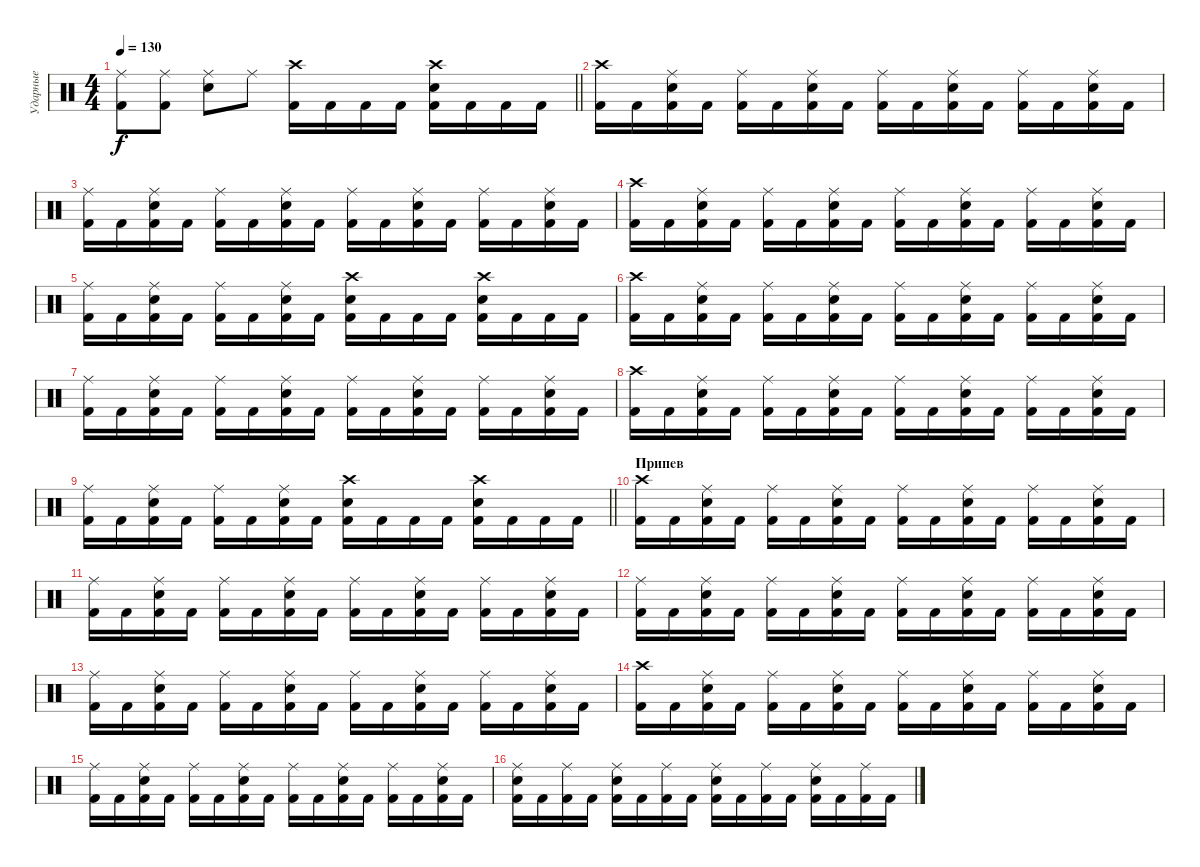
\track ("Ударные" "Ударные") {instrument percussion}
\staff {score}
\articulation defaults
\ts (4 4)
\tempo 130
\clef neutral
\barLineRight lightlight
\ks c
("Ride (middle)" "Kick (hit) 2").8{dy f} ("Ride (middle)" "Kick (hit) 2").8 ("Ride (middle)" "Snare (hit) 2").8 "Ride (middle)".8 ("Crash high (hit)" "Kick (hit) 2").16 "Kick (hit) 2".16 "Kick (hit) 2".16 "Kick (hit) 2".16 ("Crash high (hit)" "Snare (hit) 2" "Kick (hit) 2").16 "Kick (hit) 2".16 "Kick (hit) 2".16 "Kick (hit) 2".16 |
\section ("" "")
("Crash high (hit)" "Kick (hit) 2").16 "Kick (hit) 2".16 ("Ride (middle)" "Snare (hit) 2" "Kick (hit) 2").16 "Kick (hit) 2".16 ("Ride (middle)" "Kick (hit) 2").16 "Kick (hit) 2".16 ("Ride (middle)" "Snare (hit) 2" "Kick (hit) 2").16 "Kick (hit) 2".16 ("Ride (middle)" "Kick (hit) 2").16 "Kick (hit) 2".16 ("Ride (middle)" "Snare (hit) 2" "Kick (hit) 2").16 "Kick (hit) 2".16 ("Ride (middle)" "Kick (hit) 2").16 "Kick (hit) 2".16 ("Ride (middle)" "Snare (hit) 2" "Kick (hit) 2").16 "Kick (hit) 2".16 |
("Ride (middle)" "Kick (hit) 2").16 "Kick (hit) 2".16 ("Ride (middle)" "Snare (hit) 2" "Kick (hit) 2").16 "Kick (hit) 2".16 ("Ride (middle)" "Kick (hit) 2").16 "Kick (hit) 2".16 ("Ride (middle)" "Snare (hit) 2" "Kick (hit) 2").16 "Kick (hit) 2".16 ("Ride (middle)" "Kick (hit) 2").16 "Kick (hit) 2".16 ("Ride (middle)" "Snare (hit) 2" "Kick (hit) 2").16 "Kick (hit) 2".16 ("Ride (middle)" "Kick (hit) 2").16 "Kick (hit) 2".16 ("Ride (middle)" "Snare (hit) 2" "Kick (hit) 2").16 "Kick (hit) 2".16 |
("Crash high (hit)" "Kick (hit) 2").16 "Kick (hit) 2".16 ("Ride (middle)" "Snare (hit) 2" "Kick (hit) 2").16 "Kick (hit) 2".16 ("Ride (middle)" "Kick (hit) 2").16 "Kick (hit) 2".16 ("Ride (middle)" "Snare (hit) 2" "Kick (hit) 2").16 "Kick (hit) 2".16 ("Ride (middle)" "Kick (hit) 2").16 "Kick (hit) 2".16 ("Ride (middle)" "Snare (hit) 2" "Kick (hit) 2").16 "Kick (hit) 2".16 ("Ride (middle)" "Kick (hit) 2").16 "Kick (hit) 2".16 ("Ride (middle)" "Snare (hit) 2" "Kick (hit) 2").16 "Kick (hit) 2".16 |
("Ride (middle)" "Kick (hit) 2").16 "Kick (hit) 2".16 ("Ride (middle)" "Snare (hit) 2" "Kick (hit) 2").16 "Kick (hit) 2".16 ("Ride (middle)" "Kick (hit) 2").16 "Kick (hit) 2".16 ("Ride (middle)" "Snare (hit) 2" "Kick (hit) 2").16 "Kick (hit) 2".16 ("Crash high (hit)" "Snare (hit) 2" "Kick (hit) 2").16 "Kick (hit) 2".16 "Kick (hit) 2".16 "Kick (hit) 2".16 ("Crash high (hit)" "Snare (hit) 2" "Kick (hit) 2").16 "Kick (hit) 2".16 "Kick (hit) 2".16 "Kick (hit) 2".16 |
("Crash high (hit)" "Kick (hit) 2").16 "Kick (hit) 2".16 ("Ride (middle)" "Snare (hit) 2" "Kick (hit) 2").16 "Kick (hit) 2".16 ("Ride (middle)" "Kick (hit) 2").16 "Kick (hit) 2".16 ("Ride (middle)" "Snare (hit) 2" "Kick (hit) 2").16 "Kick (hit) 2".16 ("Ride (middle)" "Kick (hit) 2").16 "Kick (hit) 2".16 ("Ride (middle)" "Snare (hit) 2" "Kick (hit) 2").16 "Kick (hit) 2".16 ("Ride (middle)" "Kick (hit) 2").16 "Kick (hit) 2".16 ("Ride (middle)" "Snare (hit) 2" "Kick (hit) 2").16 "Kick (hit) 2".16 |
("Ride (middle)" "Kick (hit) 2").16 "Kick (hit) 2".16 ("Ride (middle)" "Snare (hit) 2" "Kick (hit) 2").16 "Kick (hit) 2".16 ("Ride (middle)" "Kick (hit) 2").16 "Kick (hit) 2".16 ("Ride (middle)" "Snare (hit) 2" "Kick (hit) 2").16 "Kick (hit) 2".16 ("Ride (middle)" "Kick (hit) 2").16 "Kick (hit) 2".16 ("Ride (middle)" "Snare (hit) 2" "Kick (hit) 2").16 "Kick (hit) 2".16 ("Ride (middle)" "Kick (hit) 2").16 "Kick (hit) 2".16 ("Ride (middle)" "Snare (hit) 2" "Kick (hit) 2").16 "Kick (hit) 2".16 |
("Crash high (hit)" "Kick (hit) 2").16 "Kick (hit) 2".16 ("Ride (middle)" "Snare (hit) 2" "Kick (hit) 2").16 "Kick (hit) 2".16 ("Ride (middle)" "Kick (hit) 2").16 "Kick (hit) 2".16 ("Ride (middle)" "Snare (hit) 2" "Kick (hit) 2").16 "Kick (hit) 2".16 ("Ride (middle)" "Kick (hit) 2").16 "Kick (hit) 2".16 ("Ride (middle)" "Snare (hit) 2" "Kick (hit) 2").16 "Kick (hit) 2".16 ("Ride (middle)" "Kick (hit) 2").16 "Kick (hit) 2".16 ("Ride (middle)" "Snare (hit) 2" "Kick (hit) 2").16 "Kick (hit) 2".16 |
\barLineRight lightlight
("Ride (middle)" "Kick (hit) 2").16 "Kick (hit) 2".16 ("Ride (middle)" "Snare (hit) 2" "Kick (hit) 2").16 "Kick (hit) 2".16 ("Ride (middle)" "Kick (hit) 2").16 "Kick (hit) 2".16 ("Ride (middle)" "Snare (hit) 2" "Kick (hit) 2").16 "Kick (hit) 2".16 ("Crash high (hit)" "Snare (hit) 2" "Kick (hit) 2").16 "Kick (hit) 2".16 "Kick (hit) 2".16 "Kick (hit) 2".16 ("Crash high (hit)" "Snare (hit) 2" "Kick (hit) 2").16 "Kick (hit) 2".16 "Kick (hit) 2".16 "Kick (hit) 2".16 |
\section ("" "Припев")
("Crash high (hit)" "Kick (hit) 2").16 "Kick (hit) 2".16 ("Ride (middle)" "Snare (hit) 2" "Kick (hit) 2").16 "Kick (hit) 2".16 ("Ride (middle)" "Kick (hit) 2").16 "Kick (hit) 2".16 ("Ride (middle)" "Snare (hit) 2" "Kick (hit) 2").16 "Kick (hit) 2".16 ("Ride (middle)" "Kick (hit) 2").16 "Kick (hit) 2".16 ("Ride (middle)" "Snare (hit) 2" "Kick (hit) 2").16 "Kick (hit) 2".16 ("Ride (middle)" "Kick (hit) 2").16 "Kick (hit) 2".16 ("Ride (middle)" "Snare (hit) 2" "Kick (hit) 2").16 "Kick (hit) 2".16 |
("Ride (middle)" "Kick (hit) 2").16 "Kick (hit) 2".16 ("Ride (middle)" "Snare (hit) 2" "Kick (hit) 2").16 "Kick (hit) 2".16 ("Ride (middle)" "Kick (hit) 2").16 "Kick (hit) 2".16 ("Ride (middle)" "Snare (hit) 2" "Kick (hit) 2").16 "Kick (hit) 2".16 ("Ride (middle)" "Kick (hit) 2").16 "Kick (hit) 2".16 ("Ride (middle)" "Snare (hit) 2" "Kick (hit) 2").16 "Kick (hit) 2".16 ("Ride (middle)" "Kick (hit) 2").16 "Kick (hit) 2".16 ("Ride (middle)" "Snare (hit) 2" "Kick (hit) 2").16 "Kick (hit) 2".16 |
("Ride (middle)" "Kick (hit) 2").16 "Kick (hit) 2".16 ("Ride (middle)" "Snare (hit) 2" "Kick (hit) 2").16 "Kick (hit) 2".16 ("Ride (middle)" "Kick (hit) 2").16 "Kick (hit) 2".16 ("Ride (middle)" "Snare (hit) 2" "Kick (hit) 2").16 "Kick (hit) 2".16 ("Ride (middle)" "Kick (hit) 2").16 "Kick (hit) 2".16 ("Ride (middle)" "Snare (hit) 2" "Kick (hit) 2").16 "Kick (hit) 2".16 ("Ride (middle)" "Kick (hit) 2").16 "Kick (hit) 2".16 ("Ride (middle)" "Snare (hit) 2" "Kick (hit) 2").16 "Kick (hit) 2".16 |
("Ride (middle)" "Kick (hit) 2").16 "Kick (hit) 2".16 ("Ride (middle)" "Snare (hit) 2" "Kick (hit) 2").16 "Kick (hit) 2".16 ("Ride (middle)" "Kick (hit) 2").16 "Kick (hit) 2".16 ("Ride (middle)" "Snare (hit) 2" "Kick (hit) 2").16 "Kick (hit) 2".16 ("Ride (middle)" "Kick (hit) 2").16 "Kick (hit) 2".16 ("Ride (middle)" "Snare (hit) 2" "Kick (hit) 2").16 "Kick (hit) 2".16 ("Ride (middle)" "Kick (hit) 2").16 "Kick (hit) 2".16 ("Ride (middle)" "Snare (hit) 2" "Kick (hit) 2").16 "Kick (hit) 2".16 |
("Crash high (hit)" "Kick (hit) 2").16 "Kick (hit) 2".16 ("Ride (middle)" "Snare (hit) 2" "Kick (hit) 2").16 "Kick (hit) 2".16 ("Ride (middle)" "Kick (hit) 2").16 "Kick (hit) 2".16 ("Ride (middle)" "Snare (hit) 2" "Kick (hit) 2").16 "Kick (hit) 2".16 ("Ride (middle)" "Kick (hit) 2").16 "Kick (hit) 2".16 ("Ride (middle)" "Snare (hit) 2" "Kick (hit) 2").16 "Kick (hit) 2".16 ("Ride (middle)" "Kick (hit) 2").16 "Kick (hit) 2".16 ("Ride (middle)" "Snare (hit) 2" "Kick (hit) 2").16 "Kick (hit) 2".16 |
("Ride (middle)" "Kick (hit) 2").16 "Kick (hit) 2".16 ("Ride (middle)" "Snare (hit) 2" "Kick (hit) 2").16 "Kick (hit) 2".16 ("Ride (middle)" "Kick (hit) 2").16 "Kick (hit) 2".16 ("Ride (middle)" "Snare (hit) 2" "Kick (hit) 2").16 "Kick (hit) 2".16 ("Ride (middle)" "Kick (hit) 2").16 "Kick (hit) 2".16 ("Ride (middle)" "Snare (hit) 2" "Kick (hit) 2").16 "Kick (hit) 2".16 ("Ride (middle)" "Kick (hit) 2").16 "Kick (hit) 2".16 ("Ride (middle)" "Snare (hit) 2" "Kick (hit) 2").16 "Kick (hit) 2".16 |
("Ride (middle)" "Snare (hit) 2" "Kick (hit) 2").16 "Kick (hit) 2".16 ("Ride (middle)" "Kick (hit) 2").16 "Kick (hit) 2".16 ("Ride (middle)" "Snare (hit) 2" "Kick (hit) 2").16 "Kick (hit) 2".16 ("Ride (middle)" "Kick (hit) 2").16 "Kick (hit) 2".16 ("Ride (middle)" "Snare (hit) 2" "Kick (hit) 2").16 "Kick (hit) 2".16 ("Ride (middle)" "Kick (hit) 2").16 "Kick (hit) 2".16 ("Ride (middle)" "Snare (hit) 2" "Kick (hit) 2").16 "Kick (hit) 2".16 ("Ride (middle)" "Kick (hit) 2").16 "Kick (hit) 2".16
